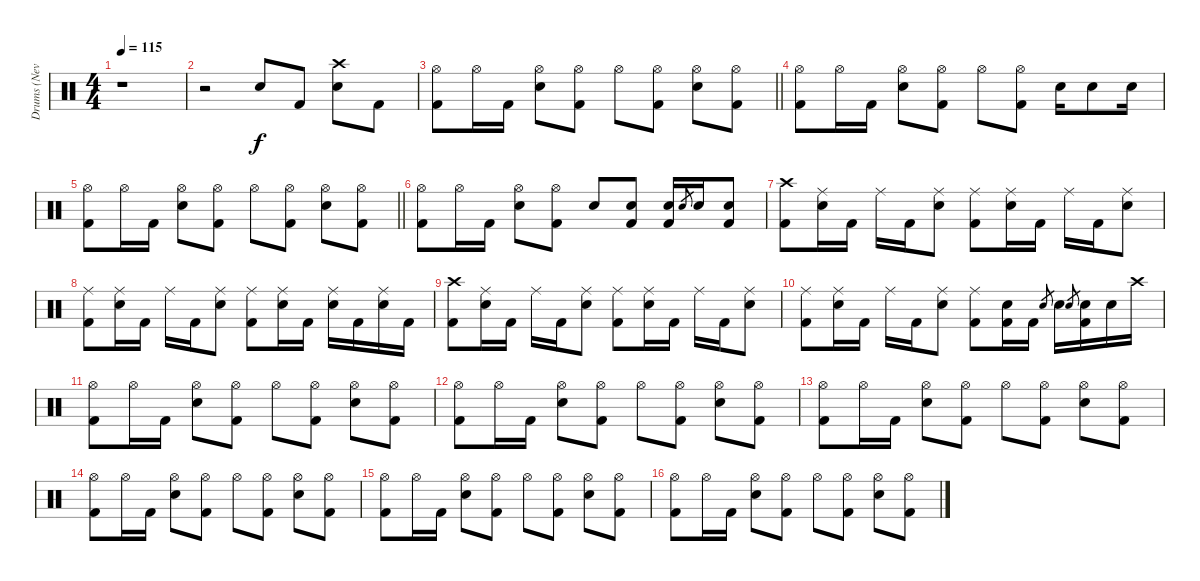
\track ("Drums (Nevi)" "Drums (Nev") {instrument percussion}
\staff {score}
\articulation defaults
\ts (4 4)
\tempo 115
\clef neutral
\ks c
r.1{dy f} |
r.2 "Snare (hit)"{t}.8 "Kick (hit) 2".8 ("Snare (hit) 2" "Crash high (hit)").8 "Kick (hit) 2".8 |
\barLineRight lightlight
("Kick (hit) 2" "Hi-Hat (open)").8 "Hi-Hat (open)".16 "Kick (hit) 2".16 ("Snare (hit) 2" "Hi-Hat (open)").8 ("Kick (hit) 2" "Hi-Hat (open)").8 "Hi-Hat (open)".8 ("Kick (hit) 2" "Hi-Hat (open)").8 ("Snare (hit) 2" "Hi-Hat (open)").8 ("Kick (hit) 2" "Hi-Hat (open)").8 |
("Kick (hit) 2" "Hi-Hat (open)").8 "Hi-Hat (open)".16 "Kick (hit) 2".16 ("Snare (hit) 2" "Hi-Hat (open)").8 ("Kick (hit) 2" "Hi-Hat (open)").8 "Hi-Hat (open)".8 ("Kick (hit) 2" "Hi-Hat (open)").8 "Snare (hit) 2".16 "Snare (hit) 2".8 "Snare (hit) 2".16 |
\barLineRight lightlight
("Kick (hit) 2" "Hi-Hat (open)").8 "Hi-Hat (open)".16 "Kick (hit) 2".16 ("Snare (hit) 2" "Hi-Hat (open)").8 ("Kick (hit) 2" "Hi-Hat (open)").8 "Hi-Hat (open)".8 ("Kick (hit) 2" "Hi-Hat (open)").8 ("Snare (hit) 2" "Hi-Hat (open)").8 ("Kick (hit) 2" "Hi-Hat (open)").8 |
("Kick (hit) 2" "Hi-Hat (open)").8 "Hi-Hat (open)".16 "Kick (hit) 2".16 ("Snare (hit) 2" "Hi-Hat (open)").8 ("Kick (hit) 2" "Hi-Hat (open)").8 "Snare (hit) 2".8 ("Kick (hit) 2" "Snare (hit) 2").8 ("Kick (hit) 2" "Snare (hit) 2").16 "Snare (hit) 2".8{gr} "Snare (hit) 2".16 ("Kick (hit) 2" "Snare (hit) 2").8 |
("Kick (hit) 2" "Crash high (hit)").8 ("Snare (hit) 2" "Ride (middle)").16 "Kick (hit) 2".16 "Ride (middle)".16 "Kick (hit) 2".16 ("Snare (hit) 2" "Ride (middle)").8 ("Kick (hit) 2" "Ride (middle)").8 ("Snare (hit) 2" "Ride (middle)").16 "Kick (hit) 2".16 "Ride (middle)".16 "Kick (hit) 2".16 ("Snare (hit) 2" "Ride (middle)").8 |
("Kick (hit) 2" "Ride (middle)").8 ("Snare (hit) 2" "Ride (middle)").16 "Kick (hit) 2".16 "Ride (middle)".16 "Kick (hit) 2".16 ("Snare (hit) 2" "Ride (middle)").8 ("Kick (hit) 2" "Ride (middle)").8 ("Snare (hit) 2" "Ride (middle)").16 "Kick (hit) 2".16 ("Snare (hit) 2" "Ride (middle)").16 "Kick (hit) 2".16 ("Snare (hit) 2" "Ride (middle)").16 "Kick (hit) 2".16 |
("Kick (hit) 2" "Crash high (hit)").8 ("Snare (hit) 2" "Ride (middle)").16 "Kick (hit) 2".16 "Ride (middle)".16 "Kick (hit) 2".16 ("Snare (hit) 2" "Ride (middle)").8 ("Kick (hit) 2" "Ride (middle)").8 ("Snare (hit) 2" "Ride (middle)").16 "Kick (hit) 2".16 "Ride (middle)".16 "Kick (hit) 2".16 ("Snare (hit) 2" "Ride (middle)").8 |
("Kick (hit) 2" "Ride (middle)").8 ("Snare (hit) 2" "Ride (middle)").16 "Kick (hit) 2".16 "Ride (middle)".16 "Kick (hit) 2".16 ("Snare (hit) 2" "Ride (middle)").8 ("Kick (hit) 2" "Ride (middle)").8 ("Kick (hit) 2" "Snare (hit) 2").16 "Kick (hit) 2".16 "Snare (hit) 2".8{gr} "Snare (hit) 2".16 "Snare (hit) 2".8{gr} ("Kick (hit) 2" "Snare (hit) 2").16 "Snare (hit) 2".16 "Crash high (hit)".16 |
("Kick (hit) 2" "Hi-Hat (open)").8 "Hi-Hat (open)".16 "Kick (hit) 2".16 ("Snare (hit) 2" "Hi-Hat (open)").8 ("Kick (hit) 2" "Hi-Hat (open)").8 "Hi-Hat (open)".8 ("Kick (hit) 2" "Hi-Hat (open)").8 ("Snare (hit) 2" "Hi-Hat (open)").8 ("Kick (hit) 2" "Hi-Hat (open)").8 |
("Kick (hit) 2" "Hi-Hat (open)").8 "Hi-Hat (open)".16 "Kick (hit) 2".16 ("Snare (hit) 2" "Hi-Hat (open)").8 ("Kick (hit) 2" "Hi-Hat (open)").8 "Hi-Hat (open)".8 ("Kick (hit) 2" "Hi-Hat (open)").8 ("Snare (hit) 2" "Hi-Hat (open)").8 ("Kick (hit) 2" "Hi-Hat (open)").8 |
("Kick (hit) 2" "Hi-Hat (open)").8 "Hi-Hat (open)".16 "Kick (hit) 2".16 ("Snare (hit) 2" "Hi-Hat (open)").8 ("Kick (hit) 2" "Hi-Hat (open)").8 "Hi-Hat (open)".8 ("Kick (hit) 2" "Hi-Hat (open)").8 ("Snare (hit) 2" "Hi-Hat (open)").8 ("Kick (hit) 2" "Hi-Hat (open)").8 |
("Kick (hit) 2" "Hi-Hat (open)").8 "Hi-Hat (open)".16 "Kick (hit) 2".16 ("Snare (hit) 2" "Hi-Hat (open)").8 ("Kick (hit) 2" "Hi-Hat (open)").8 "Hi-Hat (open)".8 ("Kick (hit) 2" "Hi-Hat (open)").8 ("Snare (hit) 2" "Hi-Hat (open)").8 ("Kick (hit) 2" "Hi-Hat (open)").8 |
("Kick (hit) 2" "Hi-Hat (open)").8 "Hi-Hat (open)".16 "Kick (hit) 2".16 ("Snare (hit) 2" "Hi-Hat (open)").8 ("Kick (hit) 2" "Hi-Hat (open)").8 "Hi-Hat (open)".8 ("Kick (hit) 2" "Hi-Hat (open)").8 ("Snare (hit) 2" "Hi-Hat (open)").8 ("Kick (hit) 2" "Hi-Hat (open)").8 |
("Kick (hit) 2" "Hi-Hat (open)").8 "Hi-Hat (open)".16 "Kick (hit) 2".16 ("Snare (hit) 2" "Hi-Hat (open)").8 ("Kick (hit) 2" "Hi-Hat (open)").8 "Hi-Hat (open)".8 ("Kick (hit) 2" "Hi-Hat (open)").8 ("Snare (hit) 2" "Hi-Hat (open)").8 ("Kick (hit) 2" "Hi-Hat (open)").8
